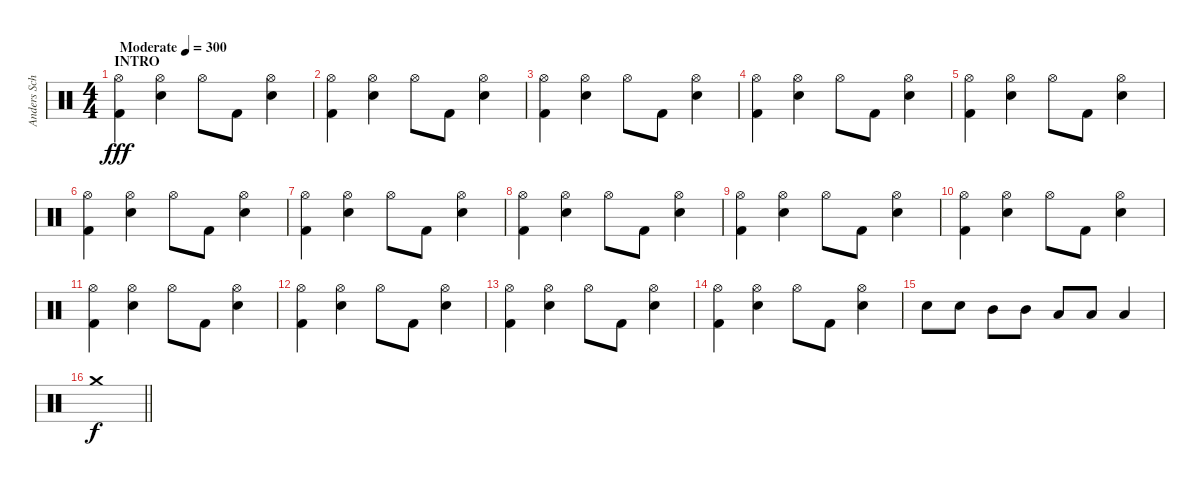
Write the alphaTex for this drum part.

\track ("Anders Schultz" "Anders Sch") {instrument percussion}
\staff {score}
\articulation defaults
\ts (4 4)
\section ("" "INTRO")
\tempo (300 "Moderate")
\clef neutral
\ks c
("Hi-Hat (open)" "Kick (hit) 2").4{dy fff} ("Hi-Hat (open)" "Snare (hit) 2").4 "Hi-Hat (open)".8 "Kick (hit) 2".8 ("Hi-Hat (open)" "Snare (hit) 2").4 |
("Hi-Hat (open)" "Kick (hit) 2").4 ("Hi-Hat (open)" "Snare (hit) 2").4 "Hi-Hat (open)".8 "Kick (hit) 2".8 ("Hi-Hat (open)" "Snare (hit) 2").4 |
("Hi-Hat (open)" "Kick (hit) 2").4 ("Hi-Hat (open)" "Snare (hit) 2").4 "Hi-Hat (open)".8 "Kick (hit) 2".8 ("Hi-Hat (open)" "Snare (hit) 2").4 |
("Hi-Hat (open)" "Kick (hit) 2").4 ("Hi-Hat (open)" "Snare (hit) 2").4 "Hi-Hat (open)".8 "Kick (hit) 2".8 ("Hi-Hat (open)" "Snare (hit) 2").4 |
("Hi-Hat (open)" "Kick (hit) 2").4 ("Hi-Hat (open)" "Snare (hit) 2").4 "Hi-Hat (open)".8 "Kick (hit) 2".8 ("Hi-Hat (open)" "Snare (hit) 2").4 |
("Hi-Hat (open)" "Kick (hit) 2").4 ("Hi-Hat (open)" "Snare (hit) 2").4 "Hi-Hat (open)".8 "Kick (hit) 2".8 ("Hi-Hat (open)" "Snare (hit) 2").4 |
("Hi-Hat (open)" "Kick (hit) 2").4 ("Hi-Hat (open)" "Snare (hit) 2").4 "Hi-Hat (open)".8 "Kick (hit) 2".8 ("Hi-Hat (open)" "Snare (hit) 2").4 |
("Hi-Hat (open)" "Kick (hit) 2").4 ("Hi-Hat (open)" "Snare (hit) 2").4 "Hi-Hat (open)".8 "Kick (hit) 2".8 ("Hi-Hat (open)" "Snare (hit) 2").4 |
("Hi-Hat (open)" "Kick (hit) 2").4 ("Hi-Hat (open)" "Snare (hit) 2").4 "Hi-Hat (open)".8 "Kick (hit) 2".8 ("Hi-Hat (open)" "Snare (hit) 2").4 |
("Hi-Hat (open)" "Kick (hit) 2").4 ("Hi-Hat (open)" "Snare (hit) 2").4 "Hi-Hat (open)".8 "Kick (hit) 2".8 ("Hi-Hat (open)" "Snare (hit) 2").4 |
("Hi-Hat (open)" "Kick (hit) 2").4 ("Hi-Hat (open)" "Snare (hit) 2").4 "Hi-Hat (open)".8 "Kick (hit) 2".8 ("Hi-Hat (open)" "Snare (hit) 2").4 |
("Hi-Hat (open)" "Kick (hit) 2").4 ("Hi-Hat (open)" "Snare (hit) 2").4 "Hi-Hat (open)".8 "Kick (hit) 2".8 ("Hi-Hat (open)" "Snare (hit) 2").4 |
("Hi-Hat (open)" "Kick (hit) 2").4 ("Hi-Hat (open)" "Snare (hit) 2").4 "Hi-Hat (open)".8 "Kick (hit) 2".8 ("Hi-Hat (open)" "Snare (hit) 2").4 |
("Hi-Hat (open)" "Kick (hit) 2").4 ("Hi-Hat (open)" "Snare (hit) 2").4 "Hi-Hat (open)".8 "Kick (hit) 2".8 ("Hi-Hat (open)" "Snare (hit) 2").4 |
"Snare (hit) 2".8 "Snare (hit) 2".8 "Mid Tom (hit)".8 "Mid Tom (hit)".8 "Low Tom (hit)".8 "Low Tom (hit)".8 "Low Tom (hit)".4 |
\barLineRight lightlight "Crash medium (hit)".1{dy f}
